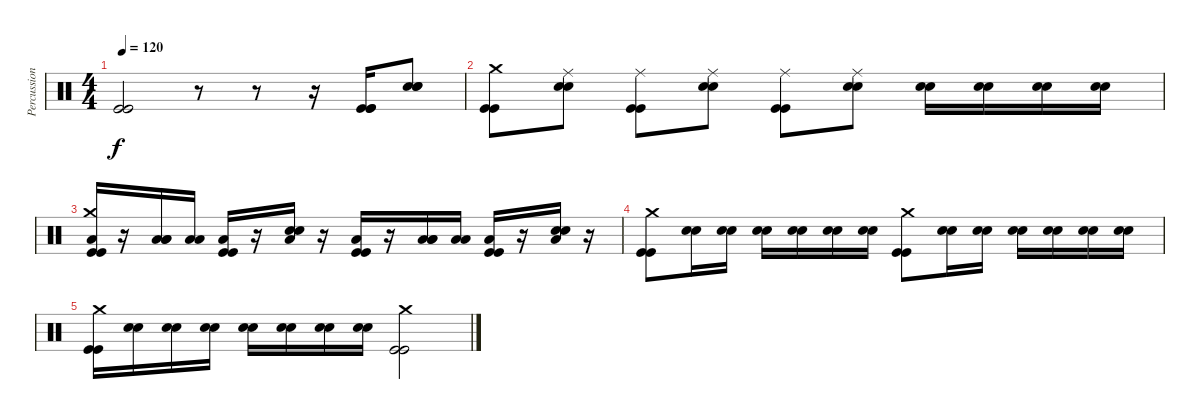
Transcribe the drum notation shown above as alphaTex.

\track ("Percussion" "Percussion") {instrument percussion}
\staff {score}
\articulation defaults
\ts (4 4)
\tempo 120
\clef neutral
\ks c
("Kick (hit)" "Kick (hit)").2{dy f} r.8 r.8 r.16 ("Kick (hit)" "Kick (hit)" "Kick (hit)").16 ("Electric Snare (hit)" "Electric Snare (hit)" "Electric Snare (hit)").8 |
("Crash medium (hit)" "Kick (hit)" "Kick (hit)").8 ("Electric Snare (hit)" "Electric Snare (hit)" "Ride (middle)").8 ("Kick (hit)" "Kick (hit)" "Ride (middle)").8 ("Electric Snare (hit)" "Electric Snare (hit)" "Ride (middle)").8 ("Kick (hit)" "Kick (hit)" "Ride (middle)").8 ("Electric Snare (hit)" "Electric Snare (hit)" "Ride (middle)").8 ("Electric Snare (hit)" "Electric Snare (hit)").16 ("Electric Snare (hit)" "Electric Snare (hit)").16 ("Electric Snare (hit)" "Electric Snare (hit)").16 ("Electric Snare (hit)" "Electric Snare (hit)").16 |
("Crash medium (hit)" "Kick (hit)" "Kick (hit)" "Low Floor Tom (hit)").16 r.16 ("Low Tom (hit)" "Low Floor Tom (hit)" "Low Floor Tom (hit)").16 ("Low Tom (hit)" "Low Floor Tom (hit)").16 ("Kick (hit)" "Kick (hit)" "Low Floor Tom (hit)").16 r.16 ("Electric Snare (hit)" "Electric Snare (hit)" "Low Floor Tom (hit)").16 r.16 ("Kick (hit)" "Kick (hit)" "Low Floor Tom (hit)").16 r.16 ("Low Tom (hit)" "Low Floor Tom (hit)" "Low Floor Tom (hit)").16 ("Low Tom (hit)" "Low Floor Tom (hit)").16 ("Kick (hit)" "Kick (hit)" "Low Floor Tom (hit)").16 r.16 ("Electric Snare (hit)" "Electric Snare (hit)" "Low Floor Tom (hit)").16 r.16 |
("Crash medium (hit)" "Kick (hit)" "Kick (hit)").8 ("Electric Snare (hit)" "Electric Snare (hit)").16 ("Electric Snare (hit)" "Electric Snare (hit)").16 ("Electric Snare (hit)" "Electric Snare (hit)").16 ("Electric Snare (hit)" "Electric Snare (hit)").16 ("Electric Snare (hit)" "Electric Snare (hit)").16 ("Electric Snare (hit)" "Electric Snare (hit)").16 ("Crash medium (hit)" "Kick (hit)" "Kick (hit)").8 ("Electric Snare (hit)" "Electric Snare (hit)").16 ("Electric Snare (hit)" "Electric Snare (hit)").16 ("Electric Snare (hit)" "Electric Snare (hit)").16 ("Electric Snare (hit)" "Electric Snare (hit)").16 ("Electric Snare (hit)" "Electric Snare (hit)").16 ("Electric Snare (hit)" "Electric Snare (hit)").16 |
("Crash medium (hit)" "Kick (hit)" "Kick (hit)").16 ("Electric Snare (hit)" "Electric Snare (hit)").16 ("Electric Snare (hit)" "Electric Snare (hit)").16 ("Electric Snare (hit)" "Electric Snare (hit)").16 ("Electric Snare (hit)" "Electric Snare (hit)").16 ("Electric Snare (hit)" "Electric Snare (hit)").16 ("Electric Snare (hit)" "Electric Snare (hit)").16 ("Electric Snare (hit)" "Electric Snare (hit)").16 ("Crash medium (hit)" "Kick (hit)" "Kick (hit)").2
